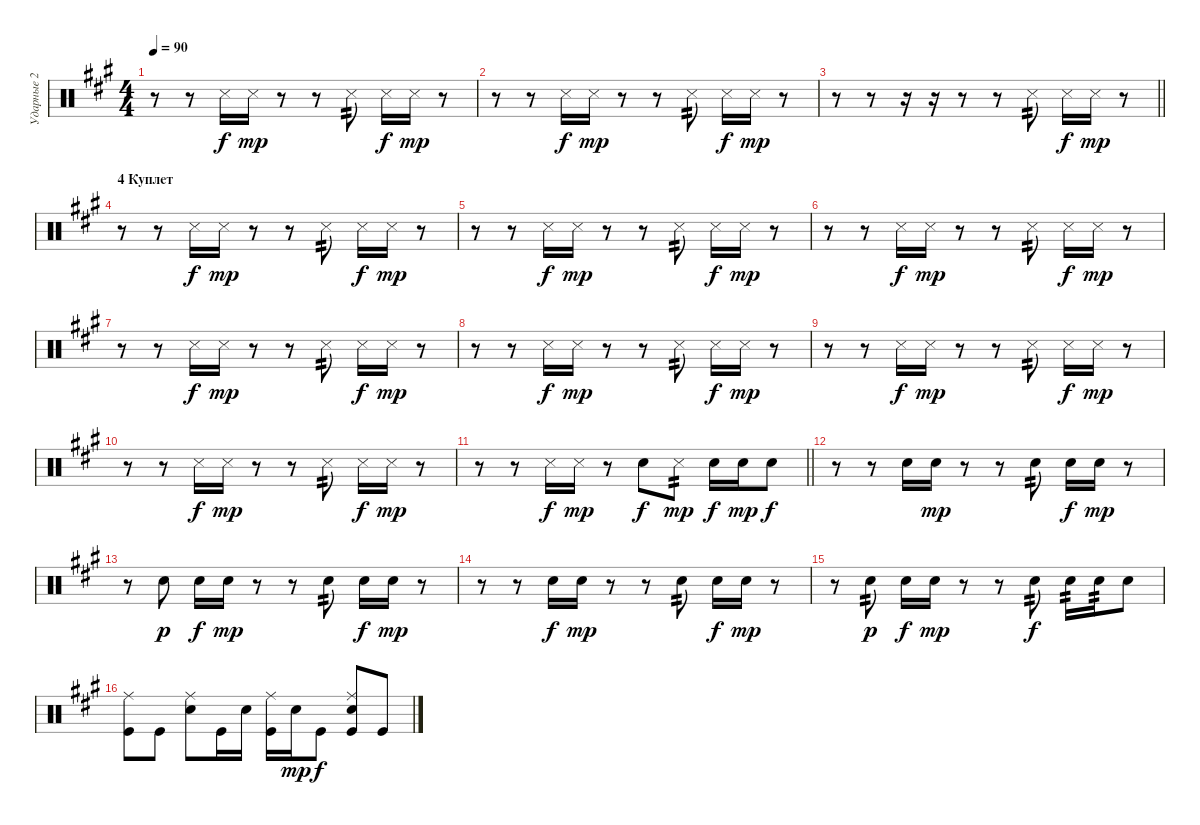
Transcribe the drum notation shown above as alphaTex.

\track ("Ударные 2" "Ударные 2") {instrument percussion}
\staff {score}
\articulation defaults
\ts (4 4)
\tempo 90
\clef neutral
\ks f#minor
r.8{dy mp} r.8 "Snare (side stick) 3".16{dy f} "Snare (side stick) 3".16{dy mp} r.8 r.8 "Snare (side stick) 3".8{tp 2} "Snare (side stick) 3".16{dy f} "Snare (side stick) 3".16{dy mp} r.8 |
r.8 r.8 "Snare (side stick) 3".16{dy f} "Snare (side stick) 3".16{dy mp} r.8 r.8 "Snare (side stick) 3".8{tp 2} "Snare (side stick) 3".16{dy f} "Snare (side stick) 3".16{dy mp} r.8 |
\barLineRight lightlight
r.8 r.8 r.16 r.16 r.8 r.8 "Snare (side stick) 3".8{tp 2} "Snare (side stick) 3".16{dy f} "Snare (side stick) 3".16{dy mp} r.8 |
\section ("" "4 Куплет")
r.8 r.8 "Snare (side stick) 3".16{dy f} "Snare (side stick) 3".16{dy mp} r.8 r.8 "Snare (side stick) 3".8{tp 2} "Snare (side stick) 3".16{dy f} "Snare (side stick) 3".16{dy mp} r.8 |
r.8 r.8 "Snare (side stick) 3".16{dy f} "Snare (side stick) 3".16{dy mp} r.8 r.8 "Snare (side stick) 3".8{tp 2} "Snare (side stick) 3".16{dy f} "Snare (side stick) 3".16{dy mp} r.8 |
r.8 r.8 "Snare (side stick) 3".16{dy f} "Snare (side stick) 3".16{dy mp} r.8 r.8 "Snare (side stick) 3".8{tp 2} "Snare (side stick) 3".16{dy f} "Snare (side stick) 3".16{dy mp} r.8 |
r.8 r.8 "Snare (side stick) 3".16{dy f} "Snare (side stick) 3".16{dy mp} r.8 r.8 "Snare (side stick) 3".8{tp 2} "Snare (side stick) 3".16{dy f} "Snare (side stick) 3".16{dy mp} r.8 |
r.8 r.8 "Snare (side stick) 3".16{dy f} "Snare (side stick) 3".16{dy mp} r.8 r.8 "Snare (side stick) 3".8{tp 2} "Snare (side stick) 3".16{dy f} "Snare (side stick) 3".16{dy mp} r.8 |
r.8 r.8 "Snare (side stick) 3".16{dy f} "Snare (side stick) 3".16{dy mp} r.8 r.8 "Snare (side stick) 3".8{tp 2} "Snare (side stick) 3".16{dy f} "Snare (side stick) 3".16{dy mp} r.8 |
r.8 r.8 "Snare (side stick) 3".16{dy f} "Snare (side stick) 3".16{dy mp} r.8 r.8 "Snare (side stick) 3".8{tp 2} "Snare (side stick) 3".16{dy f} "Snare (side stick) 3".16{dy mp} r.8 |
\barLineRight lightlight
r.8 r.8 "Snare (side stick) 3".16{dy f} "Snare (side stick) 3".16{dy mp} r.8 "Snare (hit) 2".8{dy f} "Snare (side stick) 3".8{tp 2 dy mp} "Snare (hit) 2".16{dy f} "Snare (hit) 2".16{dy mp} "Snare (hit) 2".8{dy f} |
r.8 r.8 "Snare (hit) 2".16 "Snare (hit) 2".16{dy mp} r.8 r.8 "Snare (hit) 2".8{tp 2} "Snare (hit) 2".16{dy f} "Snare (hit) 2".16{dy mp} r.8 |
r.8 "Snare (hit) 2".8{dy p} "Snare (hit) 2".16{dy f} "Snare (hit) 2".16{dy mp} r.8 r.8 "Snare (hit) 2".8{tp 2} "Snare (hit) 2".16{dy f} "Snare (hit) 2".16{dy mp} r.8 |
r.8 r.8 "Snare (hit) 2".16{dy f} "Snare (hit) 2".16{dy mp} r.8 r.8 "Snare (hit) 2".8{tp 2} "Snare (hit) 2".16{dy f} "Snare (hit) 2".16{dy mp} r.8 |
r.8 "Snare (hit) 2".8{tp 2 dy p} "Snare (hit) 2".16{dy f} "Snare (hit) 2".16{dy mp} r.8 r.8 "Snare (hit) 2".8{tp 2 dy f} "Snare (hit) 2".16{tp 2} "Snare (hit) 2".16{tp 2} "Snare (hit) 2".8 |
("Ride (middle)" "Kick (hit)").8 "Kick (hit)".8 ("Ride (middle)" "Snare (hit) 2").8 "Kick (hit)".16 "Snare (hit) 2".16 ("Ride (middle)" "Kick (hit)").16 "Snare (hit) 2".16{dy mp} "Kick (hit)".8{dy f} ("Ride (middle)" "Snare (hit) 2" "Kick (hit)").8 "Kick (hit)".8
